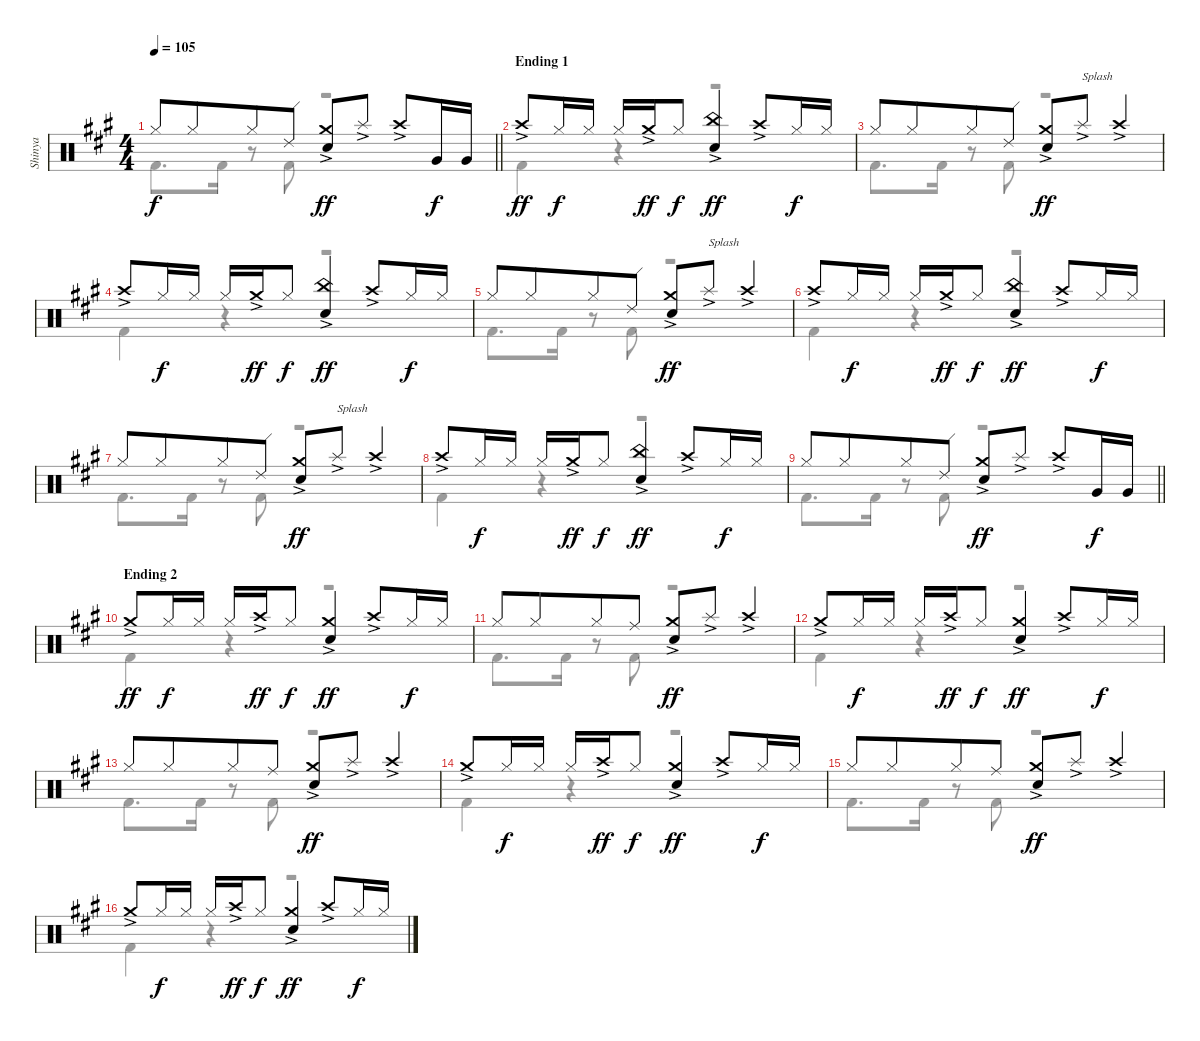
\track ("Shinya" "Shinya") {instrument percussion}
\staff {score}
\articulation defaults
\voice
\ts (4 4)
\tempo 105
\clef neutral
\barLineRight lightlight
\ks f#minor "Hi-Hat (closed)".8{dy f} "Hi-Hat (closed)".8{beam merge} "Hi-Hat (closed)".8 "Ride (edge) 2".8
("Crash medium (hit)"{ac} "Snare (hit) 2").8{dy ff} "Splash (hit)"{ac}.8 "Crash high (hit)"{ac}.8 "Very Low Tom (hit)".16{dy f} "Very Low Tom (hit)".16 |
\section ("" "Ending 1")
"Crash high (hit)"{ac}.8{dy ff} "Hi-Hat (closed)".16{dy f} "Hi-Hat (closed)".16 "Hi-Hat (closed)".16 "Crash medium (hit)"{ac}.16{dy ff} "Hi-Hat (closed)".8{dy f} ("China (hit)"{ac} "Snare (hit) 2").4{dy ff} "Crash high (hit)"{ac}.8 "Hi-Hat (closed)".16{dy f} "Hi-Hat (closed)".16 |
"Hi-Hat (closed)".8 "Hi-Hat (closed)".8{beam merge} "Hi-Hat (closed)".8 "Ride (edge) 2".8 ("Crash medium (hit)"{ac} "Snare (hit) 2").8{dy ff} "Splash (hit)"{ac}.8{txt "Splash"} "Crash high (hit)"{ac}.4 |
"Crash high (hit)"{ac}.8 "Hi-Hat (closed)".16{dy f} "Hi-Hat (closed)".16 "Hi-Hat (closed)".16 "Crash medium (hit)"{ac}.16{dy ff} "Hi-Hat (closed)".8{dy f} ("China (hit)"{ac} "Snare (hit) 2").4{dy ff} "Crash high (hit)"{ac}.8 "Hi-Hat (closed)".16{dy f} "Hi-Hat (closed)".16 |
"Hi-Hat (closed)".8 "Hi-Hat (closed)".8{beam merge} "Hi-Hat (closed)".8 "Ride (edge) 2".8 ("Crash medium (hit)"{ac} "Snare (hit) 2").8{dy ff} "Splash (hit)"{ac}.8{txt "Splash"} "Crash high (hit)"{ac}.4 |
"Crash high (hit)"{ac}.8 "Hi-Hat (closed)".16{dy f} "Hi-Hat (closed)".16 "Hi-Hat (closed)".16 "Crash medium (hit)"{ac}.16{dy ff} "Hi-Hat (closed)".8{dy f} ("China (hit)"{ac} "Snare (hit) 2").4{dy ff} "Crash high (hit)"{ac}.8 "Hi-Hat (closed)".16{dy f} "Hi-Hat (closed)".16 |
"Hi-Hat (closed)".8 "Hi-Hat (closed)".8{beam merge} "Hi-Hat (closed)".8 "Ride (edge) 2".8 ("Crash medium (hit)"{ac} "Snare (hit) 2").8{dy ff} "Splash (hit)"{ac}.8{txt "Splash"} "Crash high (hit)"{ac}.4 |
"Crash high (hit)"{ac}.8 "Hi-Hat (closed)".16{dy f} "Hi-Hat (closed)".16 "Hi-Hat (closed)".16 "Crash medium (hit)"{ac}.16{dy ff} "Hi-Hat (closed)".8{dy f} ("China (hit)"{ac} "Snare (hit) 2").4{dy ff} "Crash high (hit)"{ac}.8 "Hi-Hat (closed)".16{dy f} "Hi-Hat (closed)".16 |
\barLineRight lightlight "Hi-Hat (closed)".8 "Hi-Hat (closed)".8{beam merge} "Hi-Hat (closed)".8 "Ride (edge) 2".8
("Crash medium (hit)"{ac} "Snare (hit) 2").8{dy ff} "Splash (hit)"{ac}.8 "Crash high (hit)"{ac}.8 "Very Low Tom (hit)".16{dy f} "Very Low Tom (hit)".16 |
\section ("" "Ending 2")
"Crash medium (hit)"{ac}.8{dy ff} "Hi-Hat (closed)".16{dy f} "Hi-Hat (closed)".16 "Hi-Hat (closed)".16 "Crash high (hit)"{ac}.16{dy ff} "Hi-Hat (closed)".8{dy f} ("Crash medium (hit)"{ac} "Snare (hit) 2").4{dy ff} "Crash high (hit)"{ac}.8 "Hi-Hat (closed)".16{dy f} "Hi-Hat (closed)".16 |
"Hi-Hat (closed)".8 "Hi-Hat (closed)".8{beam merge} "Hi-Hat (closed)".8 "Ride (middle)".8 ("Crash medium (hit)"{ac} "Snare (hit) 2").8{dy ff} "Splash (hit)"{ac}.8 "Crash high (hit)"{ac}.4 |
"Crash medium (hit)"{ac}.8 "Hi-Hat (closed)".16{dy f} "Hi-Hat (closed)".16 "Hi-Hat (closed)".16 "Crash high (hit)"{ac}.16{dy ff} "Hi-Hat (closed)".8{dy f} ("Crash medium (hit)"{ac} "Snare (hit) 2").4{dy ff} "Crash high (hit)"{ac}.8 "Hi-Hat (closed)".16{dy f} "Hi-Hat (closed)".16 |
"Hi-Hat (closed)".8 "Hi-Hat (closed)".8{beam merge} "Hi-Hat (closed)".8 "Ride (middle)".8 ("Crash medium (hit)"{ac} "Snare (hit) 2").8{dy ff} "Splash (hit)"{ac}.8 "Crash high (hit)"{ac}.4 |
"Crash medium (hit)"{ac}.8 "Hi-Hat (closed)".16{dy f} "Hi-Hat (closed)".16 "Hi-Hat (closed)".16 "Crash high (hit)"{ac}.16{dy ff} "Hi-Hat (closed)".8{dy f} ("Crash medium (hit)"{ac} "Snare (hit) 2").4{dy ff} "Crash high (hit)"{ac}.8 "Hi-Hat (closed)".16{dy f} "Hi-Hat (closed)".16 |
"Hi-Hat (closed)".8 "Hi-Hat (closed)".8{beam merge} "Hi-Hat (closed)".8 "Ride (middle)".8 ("Crash medium (hit)"{ac} "Snare (hit) 2").8{dy ff} "Splash (hit)"{ac}.8 "Crash high (hit)"{ac}.4 |
"Crash medium (hit)"{ac}.8 "Hi-Hat (closed)".16{dy f} "Hi-Hat (closed)".16 "Hi-Hat (closed)".16 "Crash high (hit)"{ac}.16{dy ff} "Hi-Hat (closed)".8{dy f} ("Crash medium (hit)"{ac} "Snare (hit) 2").4{dy ff} "Crash high (hit)"{ac}.8 "Hi-Hat (closed)".16{dy f} "Hi-Hat (closed)".16
\voice
\clef neutral
\ottava regular
\simile none
\barLineRight lightlight
\ks f#minor "Kick (hit) 2".8{d dy f} "Kick (hit) 2".16
r.8 "Kick (hit) 2".8 r.2 |
"Kick (hit) 2".4 r.4 r.2 |
"Kick (hit) 2".8{d} "Kick (hit) 2".16 r.8 "Kick (hit) 2".8 r.2 |
"Kick (hit) 2".4 r.4 r.2 |
"Kick (hit) 2".8{d} "Kick (hit) 2".16 r.8 "Kick (hit) 2".8 r.2 |
"Kick (hit) 2".4 r.4 r.2 |
"Kick (hit) 2".8{d} "Kick (hit) 2".16 r.8 "Kick (hit) 2".8 r.2 |
"Kick (hit) 2".4 r.4 r.2 |
\barLineRight lightlight "Kick (hit) 2".8{d} "Kick (hit) 2".16
r.8 "Kick (hit) 2".8 r.2 |
"Kick (hit) 2".4 r.4 r.2 |
"Kick (hit) 2".8{d} "Kick (hit) 2".16 r.8 "Kick (hit) 2".8 r.2 |
"Kick (hit) 2".4 r.4 r.2 |
"Kick (hit) 2".8{d} "Kick (hit) 2".16 r.8 "Kick (hit) 2".8 r.2 |
"Kick (hit) 2".4 r.4 r.2 |
"Kick (hit) 2".8{d} "Kick (hit) 2".16 r.8 "Kick (hit) 2".8 r.2 |
"Kick (hit) 2".4 r.4 r.2
